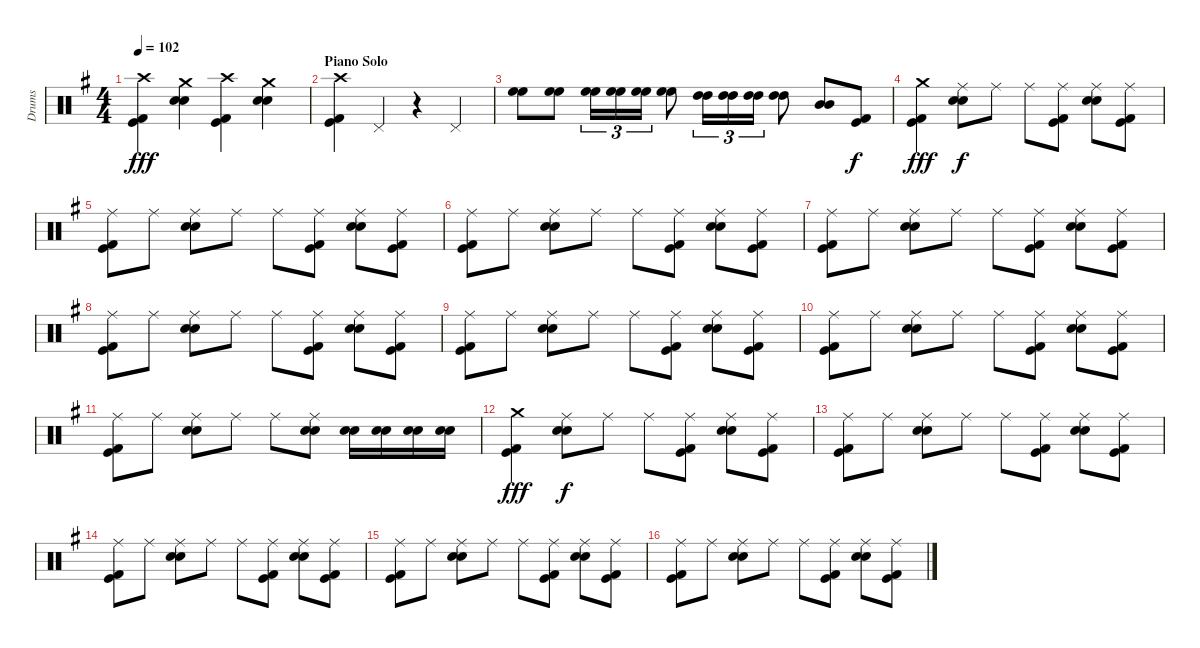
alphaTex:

\track ("Drums" "Drums") {instrument percussion}
\staff {score}
\articulation defaults
\ts (4 4)
\tempo 102
\clef neutral
\ks g
("Crash high (hit)" "Kick (hit)" "Kick (hit) 2").4{dy fff} ("Crash medium (hit)" "Electric Snare (hit)" "Snare (hit) 2").4 ("Crash high (hit)" "Kick (hit)" "Kick (hit) 2").4 ("Crash medium (hit)" "Electric Snare (hit)" "Snare (hit) 2").4 |
\section ("" "Piano Solo")
("Crash high (hit)" "Kick (hit)" "Kick (hit) 2").4{volume 10} "Pedal Hi-Hat (hit)".4 r.4 "Pedal Hi-Hat (hit)".4 |
("High Floor Tom (hit)" "High Floor Tom (hit)").8 ("High Floor Tom (hit)" "High Floor Tom (hit)").8 ("High Floor Tom (hit)" "High Floor Tom (hit)").16{tu (3 2)} ("High Floor Tom (hit)" "High Floor Tom (hit)").16{tu (3 2)} ("High Floor Tom (hit)" "High Floor Tom (hit)").16{tu (3 2)} ("High Floor Tom (hit)" "High Floor Tom (hit)").8 ("High Tom (hit)" "High Tom (hit)").16{tu (3 2)} ("High Tom (hit)" "High Tom (hit)").16{tu (3 2)} ("High Tom (hit)" "High Tom (hit)").16{tu (3 2)} ("High Tom (hit)" "High Tom (hit)").8 ("Mid Tom (hit)" "Mid Tom (hit)").8 ("Kick (hit)" "Kick (hit) 2").8{dy f} |
("Crash medium (hit)" "Kick (hit)" "Kick (hit) 2").4{dy fff} ("Ride (middle)" "Electric Snare (hit)" "Snare (hit) 2").8{dy f} "Ride (middle)".8 "Ride (middle)".8 ("Ride (middle)" "Kick (hit)" "Kick (hit) 2").8 ("Ride (middle)" "Electric Snare (hit)" "Snare (hit) 2").8 ("Ride (middle)" "Kick (hit)" "Kick (hit) 2").8 |
("Ride (middle)" "Kick (hit)" "Kick (hit) 2").8 "Ride (middle)".8 ("Ride (middle)" "Electric Snare (hit)" "Snare (hit) 2").8 "Ride (middle)".8 "Ride (middle)".8 ("Ride (middle)" "Kick (hit)" "Kick (hit) 2").8 ("Ride (middle)" "Electric Snare (hit)" "Snare (hit) 2").8 ("Ride (middle)" "Kick (hit)" "Kick (hit) 2").8 |
("Ride (middle)" "Kick (hit)" "Kick (hit) 2").8 "Ride (middle)".8 ("Ride (middle)" "Electric Snare (hit)" "Snare (hit) 2").8 "Ride (middle)".8 "Ride (middle)".8 ("Ride (middle)" "Kick (hit)" "Kick (hit) 2").8 ("Ride (middle)" "Electric Snare (hit)" "Snare (hit) 2").8 ("Ride (middle)" "Kick (hit)" "Kick (hit) 2").8 |
("Ride (middle)" "Kick (hit)" "Kick (hit) 2").8 "Ride (middle)".8 ("Ride (middle)" "Electric Snare (hit)" "Snare (hit) 2").8 "Ride (middle)".8 "Ride (middle)".8 ("Ride (middle)" "Kick (hit)" "Kick (hit) 2").8 ("Ride (middle)" "Electric Snare (hit)" "Snare (hit) 2").8 ("Ride (middle)" "Kick (hit)" "Kick (hit) 2").8 |
("Ride (middle)" "Kick (hit)" "Kick (hit) 2").8 "Ride (middle)".8 ("Ride (middle)" "Electric Snare (hit)" "Snare (hit) 2").8 "Ride (middle)".8 "Ride (middle)".8 ("Ride (middle)" "Kick (hit)" "Kick (hit) 2").8 ("Ride (middle)" "Electric Snare (hit)" "Snare (hit) 2").8 ("Ride (middle)" "Kick (hit)" "Kick (hit) 2").8 |
("Ride (middle)" "Kick (hit)" "Kick (hit) 2").8 "Ride (middle)".8 ("Ride (middle)" "Electric Snare (hit)" "Snare (hit) 2").8 "Ride (middle)".8 "Ride (middle)".8 ("Ride (middle)" "Kick (hit)" "Kick (hit) 2").8 ("Ride (middle)" "Electric Snare (hit)" "Snare (hit) 2").8 ("Ride (middle)" "Kick (hit)" "Kick (hit) 2").8 |
("Ride (middle)" "Kick (hit)" "Kick (hit) 2").8 "Ride (middle)".8 ("Ride (middle)" "Electric Snare (hit)" "Snare (hit) 2").8 "Ride (middle)".8 "Ride (middle)".8 ("Ride (middle)" "Kick (hit)" "Kick (hit) 2").8 ("Ride (middle)" "Electric Snare (hit)" "Snare (hit) 2").8 ("Ride (middle)" "Kick (hit)" "Kick (hit) 2").8 |
("Ride (middle)" "Kick (hit)" "Kick (hit) 2").8 "Ride (middle)".8 ("Ride (middle)" "Electric Snare (hit)" "Snare (hit) 2").8 "Ride (middle)".8 "Ride (middle)".8 ("Ride (middle)" "Electric Snare (hit)" "Snare (hit) 2").8 ("Electric Snare (hit)" "Snare (hit) 2").16 ("Electric Snare (hit)" "Snare (hit) 2").16 ("Electric Snare (hit)" "Snare (hit) 2").16 ("Electric Snare (hit)" "Snare (hit) 2").16 |
("Crash medium (hit)" "Kick (hit)" "Kick (hit) 2").4{dy fff} ("Ride (middle)" "Electric Snare (hit)" "Snare (hit) 2").8{dy f} "Ride (middle)".8 "Ride (middle)".8 ("Ride (middle)" "Kick (hit)" "Kick (hit) 2").8 ("Ride (middle)" "Electric Snare (hit)" "Snare (hit) 2").8 ("Ride (middle)" "Kick (hit)" "Kick (hit) 2").8 |
("Ride (middle)" "Kick (hit)" "Kick (hit) 2").8 "Ride (middle)".8 ("Ride (middle)" "Electric Snare (hit)" "Snare (hit) 2").8 "Ride (middle)".8 "Ride (middle)".8 ("Ride (middle)" "Kick (hit)" "Kick (hit) 2").8 ("Ride (middle)" "Electric Snare (hit)" "Snare (hit) 2").8 ("Ride (middle)" "Kick (hit)" "Kick (hit) 2").8 |
("Ride (middle)" "Kick (hit)" "Kick (hit) 2").8 "Ride (middle)".8 ("Ride (middle)" "Electric Snare (hit)" "Snare (hit) 2").8 "Ride (middle)".8 "Ride (middle)".8 ("Ride (middle)" "Kick (hit)" "Kick (hit) 2").8 ("Ride (middle)" "Electric Snare (hit)" "Snare (hit) 2").8 ("Ride (middle)" "Kick (hit)" "Kick (hit) 2").8 |
("Ride (middle)" "Kick (hit)" "Kick (hit) 2").8 "Ride (middle)".8 ("Ride (middle)" "Electric Snare (hit)" "Snare (hit) 2").8 "Ride (middle)".8 "Ride (middle)".8 ("Ride (middle)" "Kick (hit)" "Kick (hit) 2").8 ("Ride (middle)" "Electric Snare (hit)" "Snare (hit) 2").8 ("Ride (middle)" "Kick (hit)" "Kick (hit) 2").8 |
("Ride (middle)" "Kick (hit)" "Kick (hit) 2").8 "Ride (middle)".8 ("Ride (middle)" "Electric Snare (hit)" "Snare (hit) 2").8 "Ride (middle)".8 "Ride (middle)".8 ("Ride (middle)" "Kick (hit)" "Kick (hit) 2").8 ("Ride (middle)" "Electric Snare (hit)" "Snare (hit) 2").8 ("Ride (middle)" "Kick (hit)" "Kick (hit) 2").8
